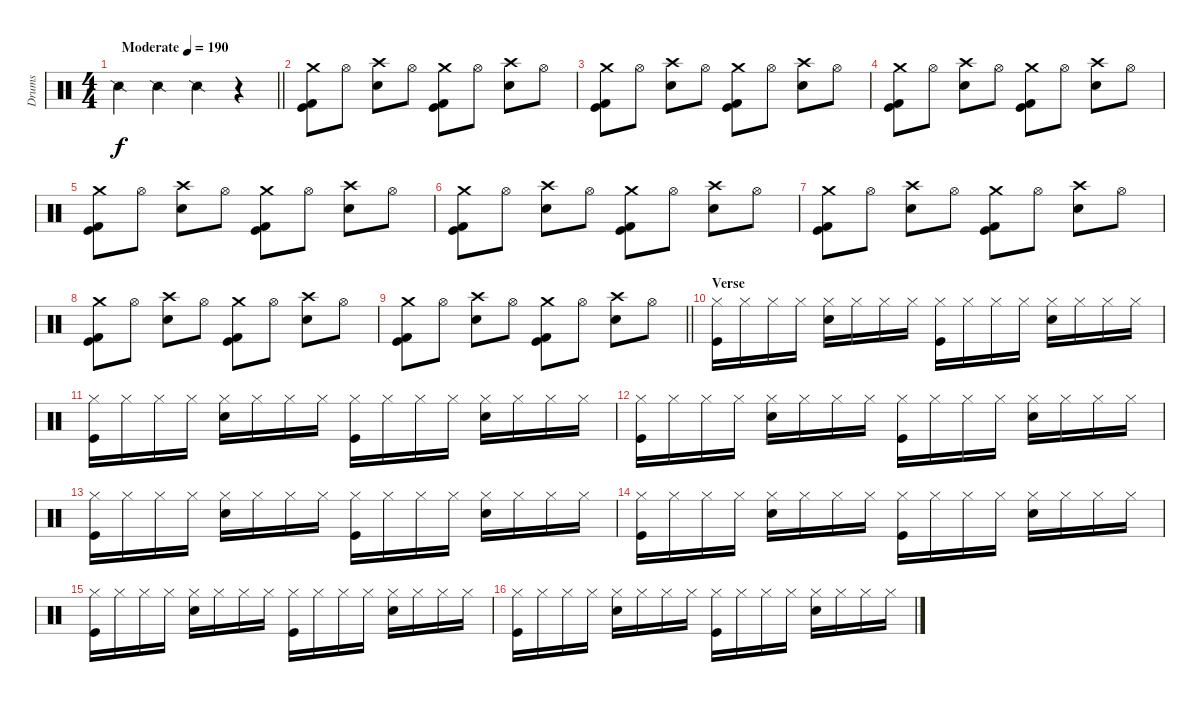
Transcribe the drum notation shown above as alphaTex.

\track ("Drums" "Drums") {instrument percussion}
\staff {score}
\articulation defaults
\ts (4 4)
\tempo (190 "Moderate")
\clef neutral
\barLineRight lightlight
\ks c "Snare (side stick) 2".4{dy f} "Snare (side stick) 2".4 "Snare (side stick) 2".4
r.4 |
("Crash medium (hit)" "Kick (hit) 2" "Kick (hit)").8 "Hi-Hat (open)".8 ("Crash high (hit)" "Electric Snare (hit)").8 "Hi-Hat (open)".8 ("Crash medium (hit)" "Kick (hit) 2" "Kick (hit)").8 "Hi-Hat (open)".8 ("Crash high (hit)" "Electric Snare (hit)").8 "Hi-Hat (open)".8 |
("Crash medium (hit)" "Kick (hit) 2" "Kick (hit)").8 "Hi-Hat (open)".8 ("Crash high (hit)" "Electric Snare (hit)").8 "Hi-Hat (open)".8 ("Crash medium (hit)" "Kick (hit) 2" "Kick (hit)").8 "Hi-Hat (open)".8 ("Crash high (hit)" "Electric Snare (hit)").8 "Hi-Hat (open)".8 |
("Crash medium (hit)" "Kick (hit) 2" "Kick (hit)").8 "Hi-Hat (open)".8 ("Crash high (hit)" "Electric Snare (hit)").8 "Hi-Hat (open)".8 ("Crash medium (hit)" "Kick (hit) 2" "Kick (hit)").8 "Hi-Hat (open)".8 ("Crash high (hit)" "Electric Snare (hit)").8 "Hi-Hat (open)".8 |
("Crash medium (hit)" "Kick (hit) 2" "Kick (hit)").8 "Hi-Hat (open)".8 ("Crash high (hit)" "Electric Snare (hit)").8 "Hi-Hat (open)".8 ("Crash medium (hit)" "Kick (hit) 2" "Kick (hit)").8 "Hi-Hat (open)".8 ("Crash high (hit)" "Electric Snare (hit)").8 "Hi-Hat (open)".8 |
("Crash medium (hit)" "Kick (hit) 2" "Kick (hit)").8 "Hi-Hat (open)".8 ("Crash high (hit)" "Electric Snare (hit)").8 "Hi-Hat (open)".8 ("Crash medium (hit)" "Kick (hit) 2" "Kick (hit)").8 "Hi-Hat (open)".8 ("Crash high (hit)" "Electric Snare (hit)").8 "Hi-Hat (open)".8 |
("Crash medium (hit)" "Kick (hit) 2" "Kick (hit)").8 "Hi-Hat (open)".8 ("Crash high (hit)" "Electric Snare (hit)").8 "Hi-Hat (open)".8 ("Crash medium (hit)" "Kick (hit) 2" "Kick (hit)").8 "Hi-Hat (open)".8 ("Crash high (hit)" "Electric Snare (hit)").8 "Hi-Hat (open)".8 |
("Crash medium (hit)" "Kick (hit) 2" "Kick (hit)").8 "Hi-Hat (open)".8 ("Crash high (hit)" "Electric Snare (hit)").8 "Hi-Hat (open)".8 ("Crash medium (hit)" "Kick (hit) 2" "Kick (hit)").8 "Hi-Hat (open)".8 ("Crash high (hit)" "Electric Snare (hit)").8 "Hi-Hat (open)".8 |
\barLineRight lightlight
("Crash medium (hit)" "Kick (hit) 2" "Kick (hit)").8 "Hi-Hat (open)".8 ("Crash high (hit)" "Electric Snare (hit)").8 "Hi-Hat (open)".8 ("Crash medium (hit)" "Kick (hit) 2" "Kick (hit)").8 "Hi-Hat (open)".8 ("Crash high (hit)" "Electric Snare (hit)").8 "Hi-Hat (open)".8 |
\section ("" "Verse")
("Hi-Hat (closed)" "Kick (hit)").16 "Hi-Hat (closed)".16 "Hi-Hat (closed)".16 "Hi-Hat (closed)".16 ("Hi-Hat (closed)" "Electric Snare (hit)").16 "Hi-Hat (closed)".16 "Hi-Hat (closed)".16 "Hi-Hat (closed)".16 ("Hi-Hat (closed)" "Kick (hit)").16 "Hi-Hat (closed)".16 "Hi-Hat (closed)".16 "Hi-Hat (closed)".16 ("Hi-Hat (closed)" "Electric Snare (hit)").16 "Hi-Hat (closed)".16 "Hi-Hat (closed)".16 "Hi-Hat (closed)".16 |
("Hi-Hat (closed)" "Kick (hit)").16 "Hi-Hat (closed)".16 "Hi-Hat (closed)".16 "Hi-Hat (closed)".16 ("Hi-Hat (closed)" "Electric Snare (hit)").16 "Hi-Hat (closed)".16 "Hi-Hat (closed)".16 "Hi-Hat (closed)".16 ("Hi-Hat (closed)" "Kick (hit)").16 "Hi-Hat (closed)".16 "Hi-Hat (closed)".16 "Hi-Hat (closed)".16 ("Hi-Hat (closed)" "Electric Snare (hit)").16 "Hi-Hat (closed)".16 "Hi-Hat (closed)".16 "Hi-Hat (closed)".16 |
("Hi-Hat (closed)" "Kick (hit)").16 "Hi-Hat (closed)".16 "Hi-Hat (closed)".16 "Hi-Hat (closed)".16 ("Hi-Hat (closed)" "Electric Snare (hit)").16 "Hi-Hat (closed)".16 "Hi-Hat (closed)".16 "Hi-Hat (closed)".16 ("Hi-Hat (closed)" "Kick (hit)").16 "Hi-Hat (closed)".16 "Hi-Hat (closed)".16 "Hi-Hat (closed)".16 ("Hi-Hat (closed)" "Electric Snare (hit)").16 "Hi-Hat (closed)".16 "Hi-Hat (closed)".16 "Hi-Hat (closed)".16 |
("Hi-Hat (closed)" "Kick (hit)").16 "Hi-Hat (closed)".16 "Hi-Hat (closed)".16 "Hi-Hat (closed)".16 ("Hi-Hat (closed)" "Electric Snare (hit)").16 "Hi-Hat (closed)".16 "Hi-Hat (closed)".16 "Hi-Hat (closed)".16 ("Hi-Hat (closed)" "Kick (hit)").16 "Hi-Hat (closed)".16 "Hi-Hat (closed)".16 "Hi-Hat (closed)".16 ("Hi-Hat (closed)" "Electric Snare (hit)").16 "Hi-Hat (closed)".16 "Hi-Hat (closed)".16 "Hi-Hat (closed)".16 |
("Hi-Hat (closed)" "Kick (hit)").16 "Hi-Hat (closed)".16 "Hi-Hat (closed)".16 "Hi-Hat (closed)".16 ("Hi-Hat (closed)" "Electric Snare (hit)").16 "Hi-Hat (closed)".16 "Hi-Hat (closed)".16 "Hi-Hat (closed)".16 ("Hi-Hat (closed)" "Kick (hit)").16 "Hi-Hat (closed)".16 "Hi-Hat (closed)".16 "Hi-Hat (closed)".16 ("Hi-Hat (closed)" "Electric Snare (hit)").16 "Hi-Hat (closed)".16 "Hi-Hat (closed)".16 "Hi-Hat (closed)".16 |
("Hi-Hat (closed)" "Kick (hit)").16 "Hi-Hat (closed)".16 "Hi-Hat (closed)".16 "Hi-Hat (closed)".16 ("Hi-Hat (closed)" "Electric Snare (hit)").16 "Hi-Hat (closed)".16 "Hi-Hat (closed)".16 "Hi-Hat (closed)".16 ("Hi-Hat (closed)" "Kick (hit)").16 "Hi-Hat (closed)".16 "Hi-Hat (closed)".16 "Hi-Hat (closed)".16 ("Hi-Hat (closed)" "Electric Snare (hit)").16 "Hi-Hat (closed)".16 "Hi-Hat (closed)".16 "Hi-Hat (closed)".16 |
("Hi-Hat (closed)" "Kick (hit)").16 "Hi-Hat (closed)".16 "Hi-Hat (closed)".16 "Hi-Hat (closed)".16 ("Hi-Hat (closed)" "Electric Snare (hit)").16 "Hi-Hat (closed)".16 "Hi-Hat (closed)".16 "Hi-Hat (closed)".16 ("Hi-Hat (closed)" "Kick (hit)").16 "Hi-Hat (closed)".16 "Hi-Hat (closed)".16 "Hi-Hat (closed)".16 ("Hi-Hat (closed)" "Electric Snare (hit)").16 "Hi-Hat (closed)".16 "Hi-Hat (closed)".16 "Hi-Hat (closed)".16
